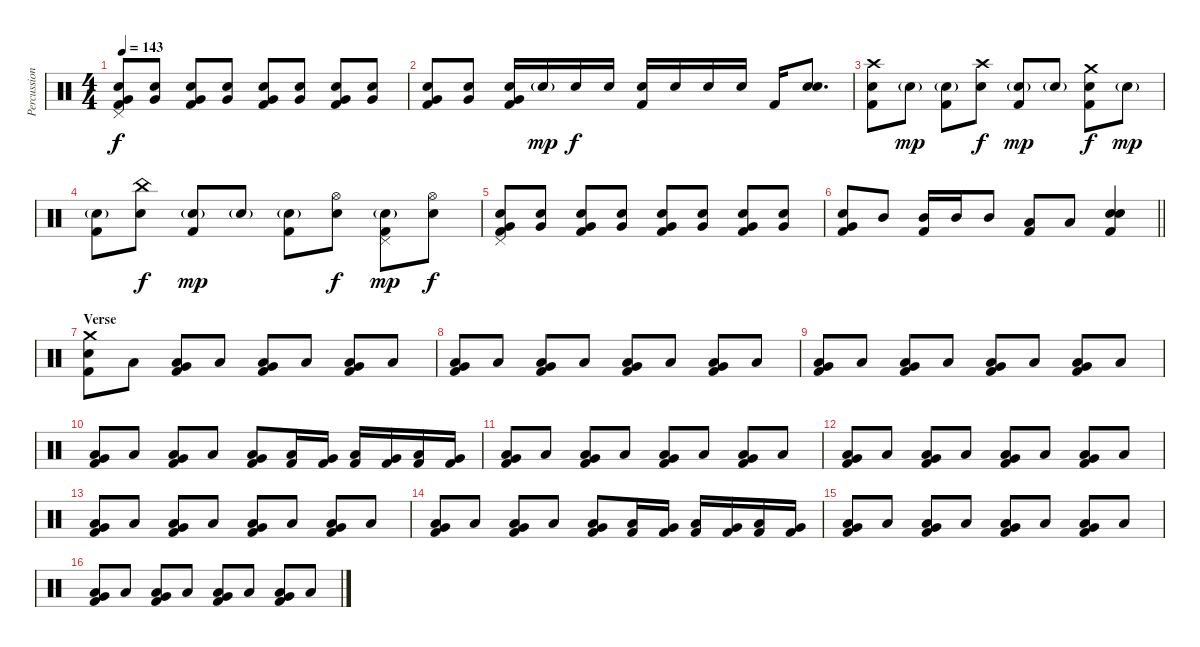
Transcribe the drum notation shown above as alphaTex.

\track ("Percussion" "Percussion") {instrument percussion}
\staff {score}
\articulation defaults
\ts (4 4)
\tempo 143
\clef neutral
\ks c
("Pedal Hi-Hat (hit)" "Electric Snare (hit)" "Very Low Tom (hit)" "Kick (hit) 2").8{dy f} ("Electric Snare (hit)" "Very Low Tom (hit)").8 ("Electric Snare (hit)" "Very Low Tom (hit)" "Kick (hit) 2").8 ("Electric Snare (hit)" "Very Low Tom (hit)").8 ("Electric Snare (hit)" "Very Low Tom (hit)" "Kick (hit) 2").8 ("Electric Snare (hit)" "Very Low Tom (hit)").8 ("Electric Snare (hit)" "Very Low Tom (hit)" "Kick (hit) 2").8 ("Electric Snare (hit)" "Very Low Tom (hit)").8 |
("Electric Snare (hit)" "Very Low Tom (hit)" "Kick (hit) 2").8 ("Electric Snare (hit)" "Very Low Tom (hit)").8 ("Electric Snare (hit)" "Very Low Tom (hit)" "Kick (hit) 2").16 "Electric Snare (hit)"{g}.16{dy mp} "Electric Snare (hit)".16{dy f} "Electric Snare (hit)".16 ("Electric Snare (hit)" "Kick (hit) 2").16 "Electric Snare (hit)".16 "Electric Snare (hit)".16 "Electric Snare (hit)".16 "Kick (hit) 2".16 ("Electric Snare (hit)" "Electric Snare (hit)").8{d bd 120} |
("Crash high (hit)" "Electric Snare (hit)" "Kick (hit) 2").8 "Electric Snare (hit)"{g}.8{dy mp} ("Electric Snare (hit)"{g} "Kick (hit) 2").8 ("Crash high (hit)" "Electric Snare (hit)").8{dy f} ("Electric Snare (hit)"{g} "Kick (hit) 2").8{dy mp} "Electric Snare (hit)"{g}.8 ("Crash medium (hit)" "Electric Snare (hit)" "Kick (hit) 2").8{dy f} "Electric Snare (hit)"{g}.8{dy mp} |
("Electric Snare (hit)"{g} "Kick (hit) 2").8 ("China (hit)" "Electric Snare (hit)").8{dy f} ("Electric Snare (hit)"{g} "Kick (hit) 2").8{dy mp} "Electric Snare (hit)"{g}.8 ("Electric Snare (hit)"{g} "Kick (hit) 2").8 ("Hi-Hat (open)" "Electric Snare (hit)").8{dy f} ("Pedal Hi-Hat (hit)" "Electric Snare (hit)"{g} "Kick (hit) 2").8{dy mp} ("Hi-Hat (open)" "Electric Snare (hit)").8{dy f} |
("Pedal Hi-Hat (hit)" "Electric Snare (hit)" "Very Low Tom (hit)" "Kick (hit) 2").8 ("Electric Snare (hit)" "Very Low Tom (hit)").8 ("Electric Snare (hit)" "Very Low Tom (hit)" "Kick (hit) 2").8 ("Electric Snare (hit)" "Very Low Tom (hit)").8 ("Electric Snare (hit)" "Very Low Tom (hit)" "Kick (hit) 2").8 ("Electric Snare (hit)" "Very Low Tom (hit)").8 ("Electric Snare (hit)" "Very Low Tom (hit)" "Kick (hit) 2").8 ("Electric Snare (hit)" "Very Low Tom (hit)").8 |
\barLineRight lightlight
("Electric Snare (hit)" "Very Low Tom (hit)" "Kick (hit) 2").8 "Mid Tom (hit)".8 ("Mid Tom (hit)" "Kick (hit) 2").16 "Mid Tom (hit)".16 "Mid Tom (hit)".8 ("Low Tom (hit)" "Kick (hit) 2").8 "Low Tom (hit)".8 ("Electric Snare (hit)" "Electric Snare (hit)" "Kick (hit) 2").4{bd 60} |
\section ("" "Verse")
("Crash medium (hit)" "Electric Snare (hit)" "Kick (hit) 2").8 "Low Floor Tom (hit)".8 ("Very Low Tom (hit)" "Low Floor Tom (hit)" "Kick (hit) 2").8 "Low Floor Tom (hit)".8 ("Very Low Tom (hit)" "Low Floor Tom (hit)" "Kick (hit) 2").8 "Low Floor Tom (hit)".8 ("Very Low Tom (hit)" "Low Floor Tom (hit)" "Kick (hit) 2").8 "Low Floor Tom (hit)".8 |
("Very Low Tom (hit)" "Low Floor Tom (hit)" "Kick (hit) 2").8 "Low Floor Tom (hit)".8 ("Very Low Tom (hit)" "Low Floor Tom (hit)" "Kick (hit) 2").8 "Low Floor Tom (hit)".8 ("Very Low Tom (hit)" "Low Floor Tom (hit)" "Kick (hit) 2").8 "Low Floor Tom (hit)".8 ("Very Low Tom (hit)" "Low Floor Tom (hit)" "Kick (hit) 2").8 "Low Floor Tom (hit)".8 |
("Very Low Tom (hit)" "Low Floor Tom (hit)" "Kick (hit) 2").8 "Low Floor Tom (hit)".8 ("Very Low Tom (hit)" "Low Floor Tom (hit)" "Kick (hit) 2").8 "Low Floor Tom (hit)".8 ("Very Low Tom (hit)" "Low Floor Tom (hit)" "Kick (hit) 2").8 "Low Floor Tom (hit)".8 ("Very Low Tom (hit)" "Low Floor Tom (hit)" "Kick (hit) 2").8 "Low Floor Tom (hit)".8 |
("Very Low Tom (hit)" "Low Floor Tom (hit)" "Kick (hit) 2").8 "Low Floor Tom (hit)".8 ("Very Low Tom (hit)" "Low Floor Tom (hit)" "Kick (hit) 2").8 "Low Floor Tom (hit)".8 ("Very Low Tom (hit)" "Low Floor Tom (hit)" "Kick (hit) 2").8 ("Low Floor Tom (hit)" "Kick (hit) 2").16 ("Very Low Tom (hit)" "Kick (hit) 2").16 ("Low Floor Tom (hit)" "Kick (hit) 2").16 ("Very Low Tom (hit)" "Kick (hit) 2").16 ("Low Floor Tom (hit)" "Kick (hit) 2").16 ("Very Low Tom (hit)" "Kick (hit) 2").16 |
("Very Low Tom (hit)" "Low Floor Tom (hit)" "Kick (hit) 2").8 "Low Floor Tom (hit)".8 ("Very Low Tom (hit)" "Low Floor Tom (hit)" "Kick (hit) 2").8 "Low Floor Tom (hit)".8 ("Very Low Tom (hit)" "Low Floor Tom (hit)" "Kick (hit) 2").8 "Low Floor Tom (hit)".8 ("Very Low Tom (hit)" "Low Floor Tom (hit)" "Kick (hit) 2").8 "Low Floor Tom (hit)".8 |
("Very Low Tom (hit)" "Low Floor Tom (hit)" "Kick (hit) 2").8 "Low Floor Tom (hit)".8 ("Very Low Tom (hit)" "Low Floor Tom (hit)" "Kick (hit) 2").8 "Low Floor Tom (hit)".8 ("Very Low Tom (hit)" "Low Floor Tom (hit)" "Kick (hit) 2").8 "Low Floor Tom (hit)".8 ("Very Low Tom (hit)" "Low Floor Tom (hit)" "Kick (hit) 2").8 "Low Floor Tom (hit)".8 |
("Very Low Tom (hit)" "Low Floor Tom (hit)" "Kick (hit) 2").8 "Low Floor Tom (hit)".8 ("Very Low Tom (hit)" "Low Floor Tom (hit)" "Kick (hit) 2").8 "Low Floor Tom (hit)".8 ("Very Low Tom (hit)" "Low Floor Tom (hit)" "Kick (hit) 2").8 "Low Floor Tom (hit)".8 ("Very Low Tom (hit)" "Low Floor Tom (hit)" "Kick (hit) 2").8 "Low Floor Tom (hit)".8 |
("Very Low Tom (hit)" "Low Floor Tom (hit)" "Kick (hit) 2").8 "Low Floor Tom (hit)".8 ("Very Low Tom (hit)" "Low Floor Tom (hit)" "Kick (hit) 2").8 "Low Floor Tom (hit)".8 ("Very Low Tom (hit)" "Low Floor Tom (hit)" "Kick (hit) 2").8 ("Low Floor Tom (hit)" "Kick (hit) 2").16 ("Very Low Tom (hit)" "Kick (hit) 2").16 ("Low Floor Tom (hit)" "Kick (hit) 2").16 ("Very Low Tom (hit)" "Kick (hit) 2").16 ("Low Floor Tom (hit)" "Kick (hit) 2").16 ("Very Low Tom (hit)" "Kick (hit) 2").16 |
("Very Low Tom (hit)" "Low Floor Tom (hit)" "Kick (hit) 2").8 "Low Floor Tom (hit)".8 ("Very Low Tom (hit)" "Low Floor Tom (hit)" "Kick (hit) 2").8 "Low Floor Tom (hit)".8 ("Very Low Tom (hit)" "Low Floor Tom (hit)" "Kick (hit) 2").8 "Low Floor Tom (hit)".8 ("Very Low Tom (hit)" "Low Floor Tom (hit)" "Kick (hit) 2").8 "Low Floor Tom (hit)".8 |
("Very Low Tom (hit)" "Low Floor Tom (hit)" "Kick (hit) 2").8 "Low Floor Tom (hit)".8 ("Very Low Tom (hit)" "Low Floor Tom (hit)" "Kick (hit) 2").8 "Low Floor Tom (hit)".8 ("Very Low Tom (hit)" "Low Floor Tom (hit)" "Kick (hit) 2").8 "Low Floor Tom (hit)".8 ("Very Low Tom (hit)" "Low Floor Tom (hit)" "Kick (hit) 2").8 "Low Floor Tom (hit)".8
